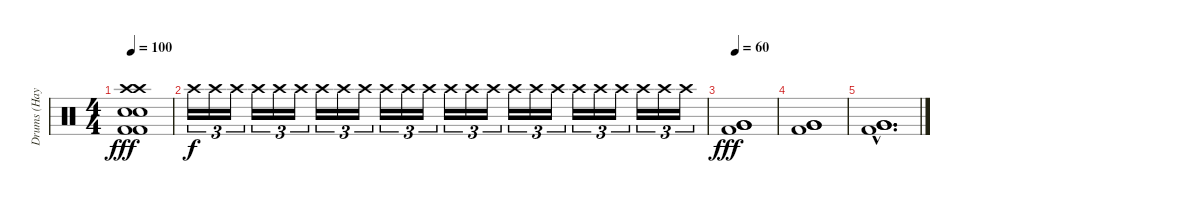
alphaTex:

\track ("Drums (Hayden)" "Drums (Hay") {instrument percussion}
\staff {score}
\articulation defaults
\ts (4 4)
\tempo 100
\clef neutral
\ks c
("Electric Snare (hit)" "Electric Snare (hit)" "Crash high (hit)" "Crash high (hit)" "Kick (hit) 2" "Kick (hit) 2").1{dy fff} |
"Crash high (hit)".16{tu (3 2) dy f} "Crash high (hit)".16{tu (3 2)} "Crash high (hit)".16{tu (3 2)} "Crash high (hit)".16{tu (3 2)} "Crash high (hit)".16{tu (3 2)} "Crash high (hit)".16{tu (3 2)} "Crash high (hit)".16{tu (3 2)} "Crash high (hit)".16{tu (3 2)} "Crash high (hit)".16{tu (3 2)} "Crash high (hit)".16{tu (3 2)} "Crash high (hit)".16{tu (3 2)} "Crash high (hit)".16{tu (3 2)} "Crash high (hit)".16{tu (3 2)} "Crash high (hit)".16{tu (3 2)} "Crash high (hit)".16{tu (3 2)} "Crash high (hit)".16{tu (3 2)} "Crash high (hit)".16{tu (3 2)} "Crash high (hit)".16{tu (3 2)} "Crash high (hit)".16{tu (3 2)} "Crash high (hit)".16{tu (3 2)} "Crash high (hit)".16{tu (3 2)} "Crash high (hit)".16{tu (3 2)} "Crash high (hit)".16{tu (3 2)} "Crash high (hit)".16{tu (3 2)} |
\tempo 60
("Kick (hit) 2" "Very Low Tom (hit)" "Very Low Tom (hit)" "Very Low Tom (hit)").1{dy fff} |
("Kick (hit) 2" "Very Low Tom (hit)" "Very Low Tom (hit)" "Very Low Tom (hit)").1 |
("Kick (hit) 2"{hac} "Very Low Tom (hit)"{hac} "Very Low Tom (hit)"{hac} "Very Low Tom (hit)"{hac}).1{d}
